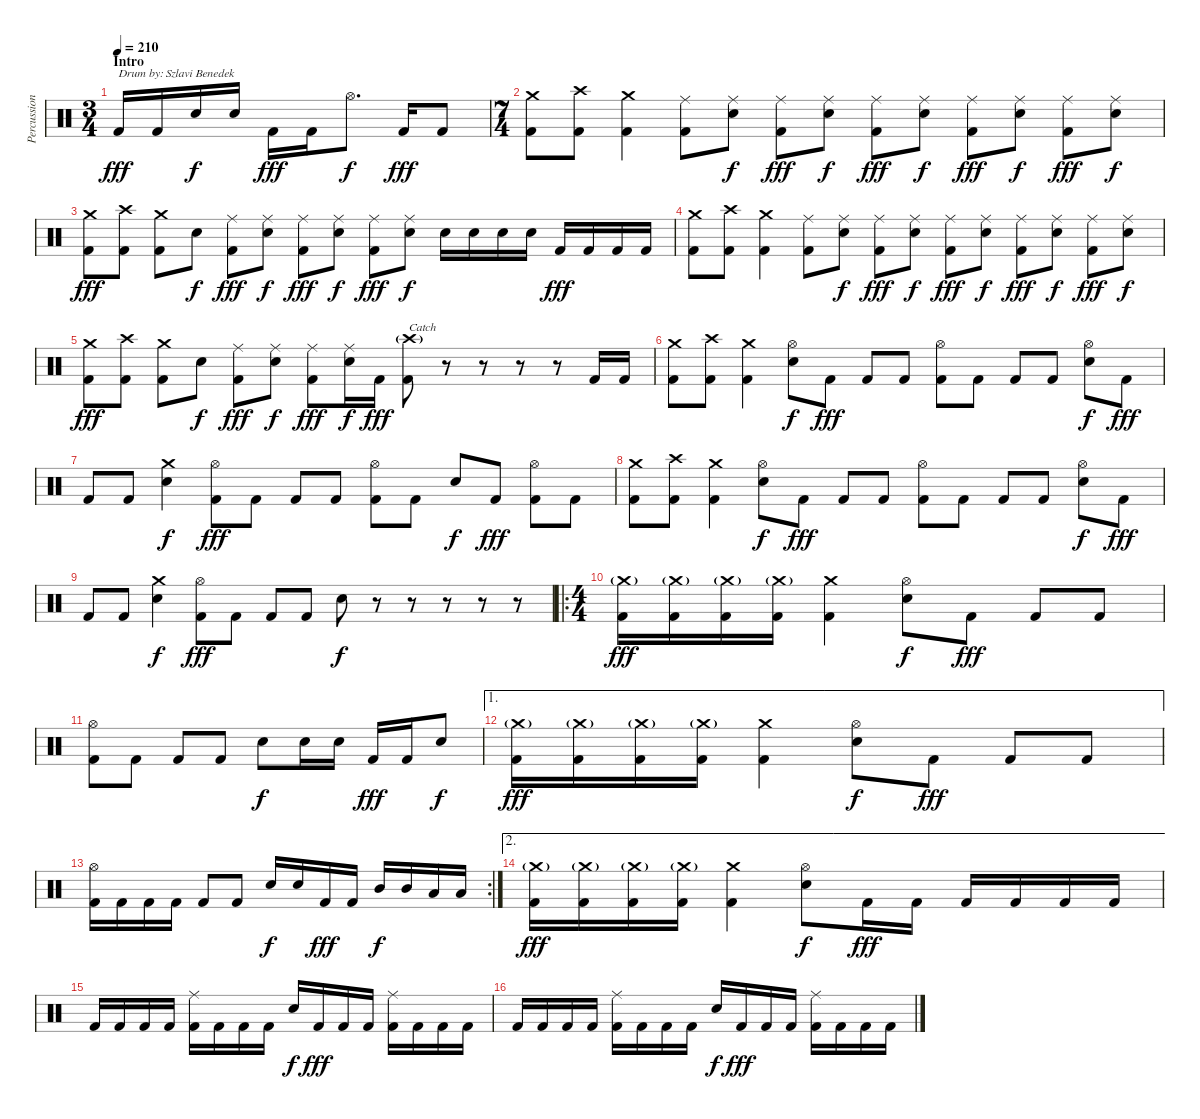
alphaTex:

\track ("Percussions" "Percussion") {instrument percussion}
\staff {score}
\articulation defaults
\ts (3 4)
\section ("" "Intro")
\tempo 210
\clef neutral
\ks c "Kick (hit) 2".16{txt "Drum by: Szlavi Benedek" dy fff} "Kick (hit) 2".16 "Electric Snare (hit)".16{dy f} "Electric Snare (hit)".16 "Kick (hit) 2".16{dy fff} "Kick (hit) 2".16 "Hi-Hat (open)".8{d dy f} "Kick (hit) 2".16{dy fff} "Kick (hit) 2".8
|
\ts (7 4)
("Crash medium (hit)" "Kick (hit) 2").8 ("Crash high (hit)" "Kick (hit) 2").8 ("Crash medium (hit)" "Kick (hit) 2").4 ("Ride (middle)" "Kick (hit) 2").8 ("Ride (middle)" "Electric Snare (hit)").8{dy f} ("Ride (middle)" "Kick (hit) 2").8{dy fff} ("Ride (middle)" "Electric Snare (hit)").8{dy f} ("Ride (middle)" "Kick (hit) 2").8{dy fff} ("Ride (middle)" "Electric Snare (hit)").8{dy f} ("Ride (middle)" "Kick (hit) 2").8{dy fff} ("Ride (middle)" "Electric Snare (hit)").8{dy f} ("Ride (middle)" "Kick (hit) 2").8{dy fff} ("Ride (middle)" "Electric Snare (hit)").8{dy f} |
("Crash medium (hit)" "Kick (hit) 2").8{dy fff} ("Crash high (hit)" "Kick (hit) 2").8 ("Crash medium (hit)" "Kick (hit) 2").8 "Electric Snare (hit)".8{dy f} ("Ride (middle)" "Kick (hit) 2").8{dy fff} ("Ride (middle)" "Electric Snare (hit)").8{dy f} ("Ride (middle)" "Kick (hit) 2").8{dy fff} ("Ride (middle)" "Electric Snare (hit)").8{dy f} ("Ride (middle)" "Kick (hit) 2").8{dy fff} ("Ride (middle)" "Electric Snare (hit)").8{dy f} "Electric Snare (hit)".16 "Electric Snare (hit)".16 "Electric Snare (hit)".16 "Electric Snare (hit)".16 "Kick (hit) 2".16{dy fff} "Kick (hit) 2".16 "Kick (hit) 2".16 "Kick (hit) 2".16 |
("Crash medium (hit)" "Kick (hit) 2").8 ("Crash high (hit)" "Kick (hit) 2").8 ("Crash medium (hit)" "Kick (hit) 2").4 ("Ride (middle)" "Kick (hit) 2").8 ("Ride (middle)" "Electric Snare (hit)").8{dy f} ("Ride (middle)" "Kick (hit) 2").8{dy fff} ("Ride (middle)" "Electric Snare (hit)").8{dy f} ("Ride (middle)" "Kick (hit) 2").8{dy fff} ("Ride (middle)" "Electric Snare (hit)").8{dy f} ("Ride (middle)" "Kick (hit) 2").8{dy fff} ("Ride (middle)" "Electric Snare (hit)").8{dy f} ("Ride (middle)" "Kick (hit) 2").8{dy fff} ("Ride (middle)" "Electric Snare (hit)").8{dy f} |
("Crash medium (hit)" "Kick (hit) 2").8{dy fff} ("Crash high (hit)" "Kick (hit) 2").8 ("Crash medium (hit)" "Kick (hit) 2").8 "Electric Snare (hit)".8{dy f} ("Ride (middle)" "Kick (hit) 2").8{dy fff} ("Ride (middle)" "Electric Snare (hit)").8{dy f} ("Ride (middle)" "Kick (hit) 2").8{dy fff} ("Ride (middle)" "Electric Snare (hit)").16{dy f} "Kick (hit) 2".16{dy fff} ("Crash high (hit)"{g} "Kick (hit) 2").8{txt "Catch "} r.8 r.8 r.8 r.8 "Kick (hit) 2".16 "Kick (hit) 2".16 |
("Crash medium (hit)" "Kick (hit) 2").8 ("Crash high (hit)" "Kick (hit) 2").8 ("Crash medium (hit)" "Kick (hit) 2").4 ("Hi-Hat (open)" "Electric Snare (hit)").8{dy f} "Kick (hit) 2".8{dy fff} "Kick (hit) 2".8 "Kick (hit) 2".8 ("Hi-Hat (open)" "Kick (hit) 2").8 "Kick (hit) 2".8 "Kick (hit) 2".8 "Kick (hit) 2".8 ("Hi-Hat (open)" "Electric Snare (hit)").8{dy f} "Kick (hit) 2".8{dy fff} |
"Kick (hit) 2".8 "Kick (hit) 2".8 ("Crash medium (hit)" "Electric Snare (hit)").4{dy f} ("Hi-Hat (open)" "Kick (hit) 2").8{dy fff} "Kick (hit) 2".8 "Kick (hit) 2".8 "Kick (hit) 2".8 ("Hi-Hat (open)" "Kick (hit) 2").8 "Kick (hit) 2".8 "Electric Snare (hit)".8{dy f} "Kick (hit) 2".8{dy fff} ("Hi-Hat (open)" "Kick (hit) 2").8 "Kick (hit) 2".8 |
("Crash medium (hit)" "Kick (hit) 2").8 ("Crash high (hit)" "Kick (hit) 2").8 ("Crash medium (hit)" "Kick (hit) 2").4 ("Hi-Hat (open)" "Electric Snare (hit)").8{dy f} "Kick (hit) 2".8{dy fff} "Kick (hit) 2".8 "Kick (hit) 2".8 ("Hi-Hat (open)" "Kick (hit) 2").8 "Kick (hit) 2".8 "Kick (hit) 2".8 "Kick (hit) 2".8 ("Hi-Hat (open)" "Electric Snare (hit)").8{dy f} "Kick (hit) 2".8{dy fff} |
"Kick (hit) 2".8 "Kick (hit) 2".8 ("Crash medium (hit)" "Electric Snare (hit)").4{dy f} ("Hi-Hat (open)" "Kick (hit) 2").8{dy fff} "Kick (hit) 2".8 "Kick (hit) 2".8 "Kick (hit) 2".8 "Electric Snare (hit)".8{dy f} r.8 r.8 r.8 r.8 r.8 |
\ro
\ts (4 4)
("Crash medium (hit)"{g} "Kick (hit) 2").16{dy fff} ("Crash medium (hit)"{g} "Kick (hit) 2").16 ("Crash medium (hit)"{g} "Kick (hit) 2").16 ("Crash medium (hit)"{g} "Kick (hit) 2").16 ("Crash medium (hit)" "Kick (hit) 2").4 ("Hi-Hat (open)" "Electric Snare (hit)").8{dy f} "Kick (hit) 2".8{dy fff} "Kick (hit) 2".8 "Kick (hit) 2".8 |
("Hi-Hat (open)" "Kick (hit) 2").8 "Kick (hit) 2".8 "Kick (hit) 2".8 "Kick (hit) 2".8 "Electric Snare (hit)".8{dy f} "Electric Snare (hit)".16 "Electric Snare (hit)".16 "Kick (hit) 2".16{dy fff} "Kick (hit) 2".16 "Electric Snare (hit)".8{dy f} |
\ae 1
("Crash medium (hit)"{g} "Kick (hit) 2").16{dy fff} ("Crash medium (hit)"{g} "Kick (hit) 2").16 ("Crash medium (hit)"{g} "Kick (hit) 2").16 ("Crash medium (hit)"{g} "Kick (hit) 2").16 ("Crash medium (hit)" "Kick (hit) 2").4 ("Hi-Hat (open)" "Electric Snare (hit)").8{dy f} "Kick (hit) 2".8{dy fff} "Kick (hit) 2".8 "Kick (hit) 2".8 |
\rc 2
("Hi-Hat (open)" "Kick (hit) 2").16 "Kick (hit) 2".16 "Kick (hit) 2".16 "Kick (hit) 2".16 "Kick (hit) 2".8 "Kick (hit) 2".8 "Electric Snare (hit)".16{dy f} "Electric Snare (hit)".16 "Kick (hit) 2".16{dy fff} "Kick (hit) 2".16 "Mid Tom (hit)".16{dy f} "Mid Tom (hit)".16 "Low Tom (hit)".16 "Low Tom (hit)".16 |
\ae 2
("Crash medium (hit)"{g} "Kick (hit) 2").16{dy fff} ("Crash medium (hit)"{g} "Kick (hit) 2").16 ("Crash medium (hit)"{g} "Kick (hit) 2").16 ("Crash medium (hit)"{g} "Kick (hit) 2").16 ("Crash medium (hit)" "Kick (hit) 2").4 ("Hi-Hat (open)" "Electric Snare (hit)").8{dy f} "Kick (hit) 2".16{dy fff} "Kick (hit) 2".16 "Kick (hit) 2".16 "Kick (hit) 2".16 "Kick (hit) 2".16 "Kick (hit) 2".16 |
"Kick (hit) 2".16 "Kick (hit) 2".16 "Kick (hit) 2".16 "Kick (hit) 2".16 ("Ride (middle)" "Kick (hit) 2").16 "Kick (hit) 2".16 "Kick (hit) 2".16 "Kick (hit) 2".16 "Electric Snare (hit)".16{dy f} "Kick (hit) 2".16{dy fff} "Kick (hit) 2".16 "Kick (hit) 2".16 ("Ride (middle)" "Kick (hit) 2").16 "Kick (hit) 2".16 "Kick (hit) 2".16 "Kick (hit) 2".16 |
"Kick (hit) 2".16 "Kick (hit) 2".16 "Kick (hit) 2".16 "Kick (hit) 2".16 ("Ride (middle)" "Kick (hit) 2").16 "Kick (hit) 2".16 "Kick (hit) 2".16 "Kick (hit) 2".16 "Electric Snare (hit)".16{dy f} "Kick (hit) 2".16{dy fff} "Kick (hit) 2".16 "Kick (hit) 2".16 ("Ride (middle)" "Kick (hit) 2").16 "Kick (hit) 2".16 "Kick (hit) 2".16 "Kick (hit) 2".16
